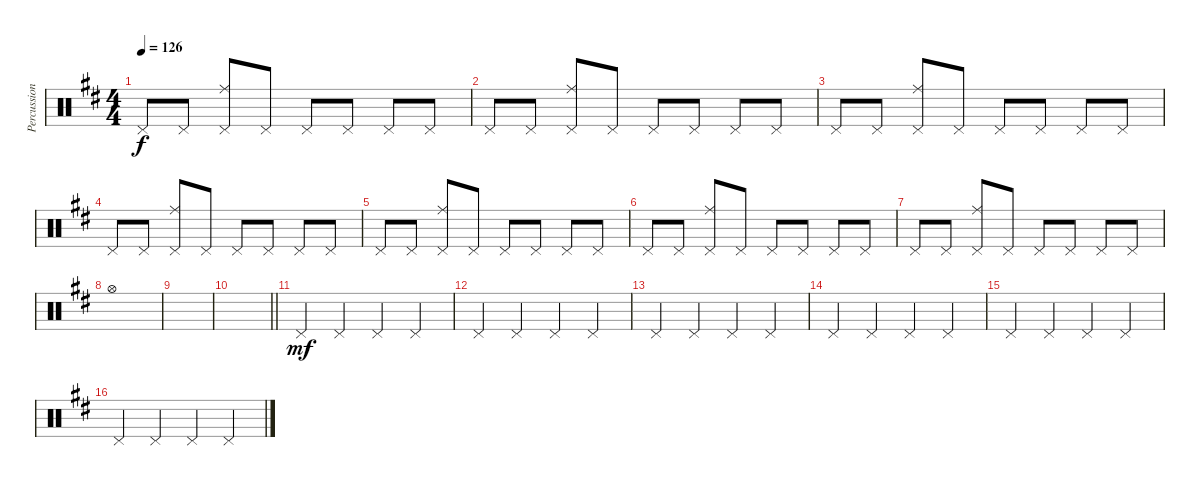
\track ("Percussion" "Percussion") {instrument percussion}
\staff {score}
\articulation defaults
\ts (4 4)
\tempo 126
\clef neutral
\ks d "Pedal Hi-Hat (hit)".8{dy f} "Pedal Hi-Hat (hit)".8
("Pedal Hi-Hat (hit)" "Ride (middle)").8 "Pedal Hi-Hat (hit)".8 "Pedal Hi-Hat (hit)".8 "Pedal Hi-Hat (hit)".8 "Pedal Hi-Hat (hit)".8 "Pedal Hi-Hat (hit)".8 |
"Pedal Hi-Hat (hit)".8 "Pedal Hi-Hat (hit)".8 ("Pedal Hi-Hat (hit)" "Ride (middle)").8 "Pedal Hi-Hat (hit)".8 "Pedal Hi-Hat (hit)".8 "Pedal Hi-Hat (hit)".8 "Pedal Hi-Hat (hit)".8 "Pedal Hi-Hat (hit)".8 |
"Pedal Hi-Hat (hit)".8 "Pedal Hi-Hat (hit)".8 ("Pedal Hi-Hat (hit)" "Ride (middle)").8 "Pedal Hi-Hat (hit)".8 "Pedal Hi-Hat (hit)".8 "Pedal Hi-Hat (hit)".8 "Pedal Hi-Hat (hit)".8 "Pedal Hi-Hat (hit)".8 |
"Pedal Hi-Hat (hit)".8 "Pedal Hi-Hat (hit)".8 ("Pedal Hi-Hat (hit)" "Ride (middle)").8 "Pedal Hi-Hat (hit)".8 "Pedal Hi-Hat (hit)".8 "Pedal Hi-Hat (hit)".8 "Pedal Hi-Hat (hit)".8 "Pedal Hi-Hat (hit)".8 |
"Pedal Hi-Hat (hit)".8 "Pedal Hi-Hat (hit)".8 ("Pedal Hi-Hat (hit)" "Ride (middle)").8 "Pedal Hi-Hat (hit)".8 "Pedal Hi-Hat (hit)".8 "Pedal Hi-Hat (hit)".8 "Pedal Hi-Hat (hit)".8 "Pedal Hi-Hat (hit)".8 |
"Pedal Hi-Hat (hit)".8 "Pedal Hi-Hat (hit)".8 ("Pedal Hi-Hat (hit)" "Ride (middle)").8 "Pedal Hi-Hat (hit)".8 "Pedal Hi-Hat (hit)".8 "Pedal Hi-Hat (hit)".8 "Pedal Hi-Hat (hit)".8 "Pedal Hi-Hat (hit)".8 |
"Pedal Hi-Hat (hit)".8 "Pedal Hi-Hat (hit)".8 ("Pedal Hi-Hat (hit)" "Ride (middle)").8 "Pedal Hi-Hat (hit)".8 "Pedal Hi-Hat (hit)".8 "Pedal Hi-Hat (hit)".8 "Pedal Hi-Hat (hit)".8 "Pedal Hi-Hat (hit)".8 |
"Hi-Hat (open)".1 |
|
\barLineRight lightlight
|
"Pedal Hi-Hat (hit)".4{dy mf} "Pedal Hi-Hat (hit)".4 "Pedal Hi-Hat (hit)".4 "Pedal Hi-Hat (hit)".4 |
"Pedal Hi-Hat (hit)".4 "Pedal Hi-Hat (hit)".4 "Pedal Hi-Hat (hit)".4 "Pedal Hi-Hat (hit)".4 |
"Pedal Hi-Hat (hit)".4 "Pedal Hi-Hat (hit)".4 "Pedal Hi-Hat (hit)".4 "Pedal Hi-Hat (hit)".4 |
"Pedal Hi-Hat (hit)".4 "Pedal Hi-Hat (hit)".4 "Pedal Hi-Hat (hit)".4 "Pedal Hi-Hat (hit)".4 |
"Pedal Hi-Hat (hit)".4 "Pedal Hi-Hat (hit)".4 "Pedal Hi-Hat (hit)".4 "Pedal Hi-Hat (hit)".4 |
"Pedal Hi-Hat (hit)".4 "Pedal Hi-Hat (hit)".4 "Pedal Hi-Hat (hit)".4 "Pedal Hi-Hat (hit)".4
